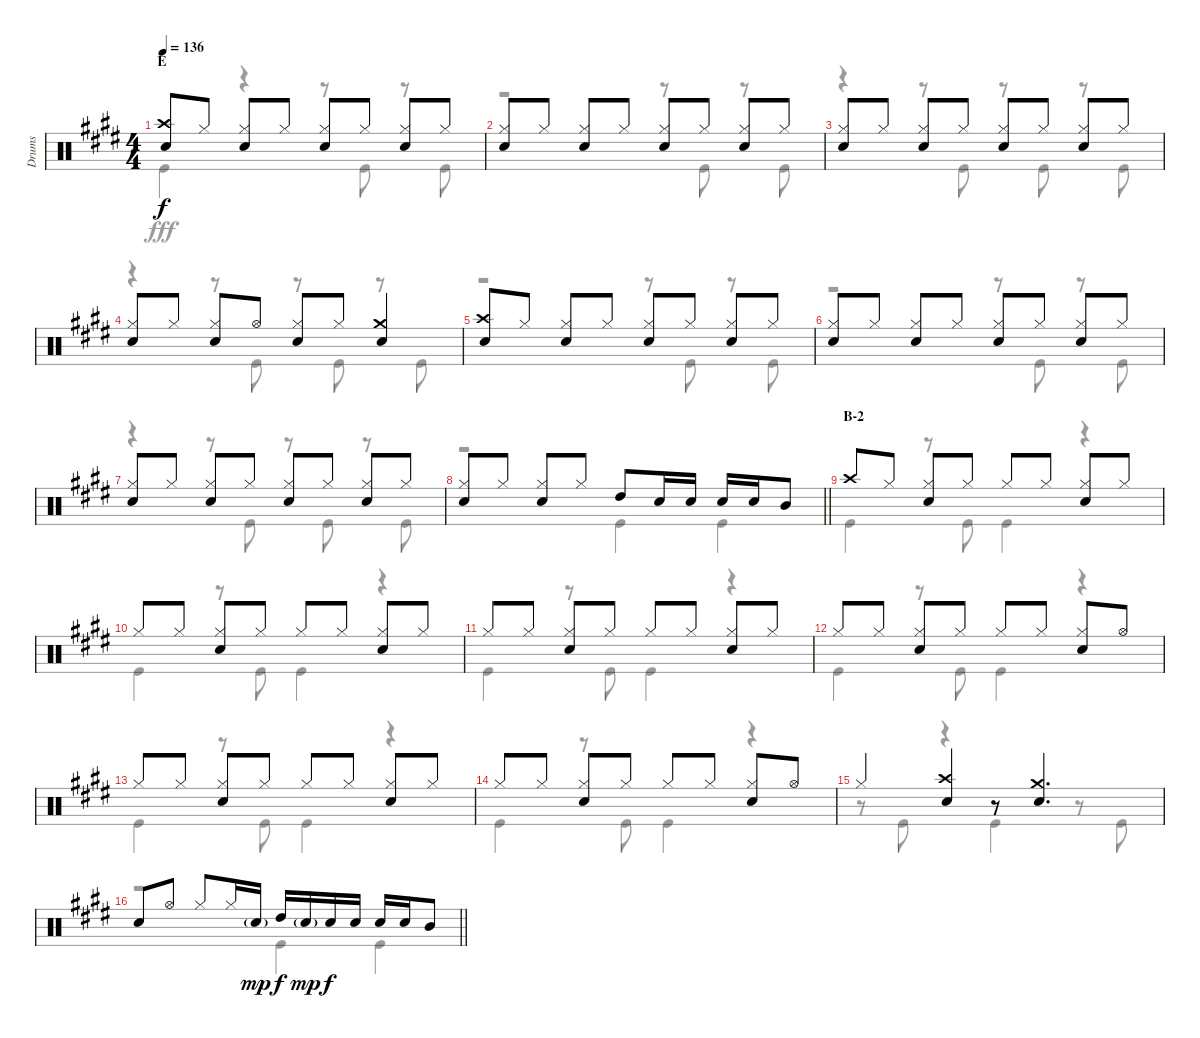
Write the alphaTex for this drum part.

\track ("Drums" "Drums") {instrument percussion}
\staff {score}
\articulation defaults
\voice
\ts (4 4)
\section ("" "E")
\tempo 136
\clef neutral
\ks e
("Crash high (hit)" "Snare (hit) 2").8{dy f} "Hi-Hat (closed)".8 ("Hi-Hat (closed)" "Snare (hit) 2").8 "Hi-Hat (closed)".8 ("Hi-Hat (closed)" "Snare (hit) 2").8 "Hi-Hat (closed)".8 ("Hi-Hat (closed)" "Snare (hit) 2").8 "Hi-Hat (closed)".8 |
("Hi-Hat (closed)" "Snare (hit) 2").8 "Hi-Hat (closed)".8 ("Hi-Hat (closed)" "Snare (hit) 2").8 "Hi-Hat (closed)".8 ("Hi-Hat (closed)" "Snare (hit) 2").8 "Hi-Hat (closed)".8 ("Hi-Hat (closed)" "Snare (hit) 2").8 "Hi-Hat (closed)".8 |
("Hi-Hat (closed)" "Snare (hit) 2").8 "Hi-Hat (closed)".8 ("Hi-Hat (closed)" "Snare (hit) 2").8 "Hi-Hat (closed)".8 ("Hi-Hat (closed)" "Snare (hit) 2").8 "Hi-Hat (closed)".8 ("Hi-Hat (closed)" "Snare (hit) 2").8 "Hi-Hat (closed)".8 |
("Hi-Hat (closed)" "Snare (hit) 2").8 "Hi-Hat (closed)".8 ("Hi-Hat (closed)" "Snare (hit) 2").8 "Hi-Hat (open)".8 ("Hi-Hat (closed)" "Snare (hit) 2").8 "Hi-Hat (closed)".8 ("Crash medium (hit)" "Snare (hit) 2").4 |
("Crash high (hit)" "Snare (hit) 2").8 "Hi-Hat (closed)".8 ("Hi-Hat (closed)" "Snare (hit) 2").8 "Hi-Hat (closed)".8 ("Hi-Hat (closed)" "Snare (hit) 2").8 "Hi-Hat (closed)".8 ("Hi-Hat (closed)" "Snare (hit) 2").8 "Hi-Hat (closed)".8 |
("Hi-Hat (closed)" "Snare (hit) 2").8 "Hi-Hat (closed)".8 ("Hi-Hat (closed)" "Snare (hit) 2").8 "Hi-Hat (closed)".8 ("Hi-Hat (closed)" "Snare (hit) 2").8 "Hi-Hat (closed)".8 ("Hi-Hat (closed)" "Snare (hit) 2").8 "Hi-Hat (closed)".8 |
("Hi-Hat (closed)" "Snare (hit) 2").8 "Hi-Hat (closed)".8 ("Hi-Hat (closed)" "Snare (hit) 2").8 "Hi-Hat (closed)".8 ("Hi-Hat (closed)" "Snare (hit) 2").8 "Hi-Hat (closed)".8 ("Hi-Hat (closed)" "Snare (hit) 2").8 "Hi-Hat (closed)".8 |
\barLineRight lightlight
("Hi-Hat (closed)" "Snare (hit) 2").8 "Hi-Hat (closed)".8 ("Hi-Hat (closed)" "Snare (hit) 2").8 "Hi-Hat (closed)".8 "High Tom (hit)".8 "Snare (hit) 2".16 "Snare (hit) 2".16 "Snare (hit) 2".16 "Snare (hit) 2".16 "Mid Tom (hit)".8 |
\section ("" "B-2")
"Crash high (hit)".8 "Hi-Hat (closed)".8 ("Hi-Hat (closed)" "Snare (hit) 2").8 "Hi-Hat (closed)".8 "Hi-Hat (closed)".8 "Hi-Hat (closed)".8 ("Hi-Hat (closed)" "Snare (hit) 2").8 "Hi-Hat (closed)".8 |
"Hi-Hat (closed)".8 "Hi-Hat (closed)".8 ("Hi-Hat (closed)" "Snare (hit) 2").8 "Hi-Hat (closed)".8 "Hi-Hat (closed)".8 "Hi-Hat (closed)".8 ("Hi-Hat (closed)" "Snare (hit) 2").8 "Hi-Hat (closed)".8 |
"Hi-Hat (closed)".8 "Hi-Hat (closed)".8 ("Hi-Hat (closed)" "Snare (hit) 2").8 "Hi-Hat (closed)".8 "Hi-Hat (closed)".8 "Hi-Hat (closed)".8 ("Hi-Hat (closed)" "Snare (hit) 2").8 "Hi-Hat (closed)".8 |
"Hi-Hat (closed)".8 "Hi-Hat (closed)".8 ("Hi-Hat (closed)" "Snare (hit) 2").8 "Hi-Hat (closed)".8 "Hi-Hat (closed)".8 "Hi-Hat (closed)".8 ("Hi-Hat (closed)" "Snare (hit) 2").8 "Hi-Hat (open)".8 |
"Hi-Hat (closed)".8 "Hi-Hat (closed)".8 ("Hi-Hat (closed)" "Snare (hit) 2").8 "Hi-Hat (closed)".8 "Hi-Hat (closed)".8 "Hi-Hat (closed)".8 ("Hi-Hat (closed)" "Snare (hit) 2").8 "Hi-Hat (closed)".8 |
"Hi-Hat (closed)".8 "Hi-Hat (closed)".8 ("Hi-Hat (closed)" "Snare (hit) 2").8 "Hi-Hat (closed)".8 "Hi-Hat (closed)".8 "Hi-Hat (closed)".8 ("Hi-Hat (closed)" "Snare (hit) 2").8 "Hi-Hat (open)".8 |
"Hi-Hat (closed)".4 ("Crash high (hit)" "Snare (hit) 2").4 r.8 ("Crash medium (hit)" "Snare (hit) 2").4{d} |
\barLineRight lightlight "Snare (hit) 2".8 "Hi-Hat (open)".8 "Hi-Hat (closed)".8 "Hi-Hat (closed)".16 "Snare (hit) 2"{g}.16{dy mp} "High Tom (hit)".16{dy f} "Snare (hit) 2"{g}.16{dy mp} "Snare (hit) 2".16{dy f} "Snare (hit) 2".16 "Snare (hit) 2".16 "Snare (hit) 2".16 "Mid Tom (hit)".8
\voice
\clef neutral
\ottava regular
\simile none
\ks e "Kick (hit)".4{dy fff}
r.4 r.8 "Kick (hit)".8 r.8 "Kick (hit)".8 |
r.2 r.8 "Kick (hit)".8 r.8 "Kick (hit)".8 |
r.4 r.8 "Kick (hit)".8 r.8 "Kick (hit)".8 r.8 "Kick (hit)".8 |
r.4 r.8 "Kick (hit)".8 r.8 "Kick (hit)".8 r.8 "Kick (hit)".8 |
r.2 r.8 "Kick (hit)".8 r.8 "Kick (hit)".8 |
r.2 r.8 "Kick (hit)".8 r.8 "Kick (hit)".8 |
r.4 r.8 "Kick (hit)".8 r.8 "Kick (hit)".8 r.8 "Kick (hit)".8 |
\barLineRight lightlight
r.2 "Kick (hit)".4 "Kick (hit)".4 |
"Kick (hit)".4 r.8 "Kick (hit)".8 "Kick (hit)".4 r.4 |
"Kick (hit)".4 r.8 "Kick (hit)".8 "Kick (hit)".4 r.4 |
"Kick (hit)".4 r.8 "Kick (hit)".8 "Kick (hit)".4 r.4 |
"Kick (hit)".4 r.8 "Kick (hit)".8 "Kick (hit)".4 r.4 |
"Kick (hit)".4 r.8 "Kick (hit)".8 "Kick (hit)".4 r.4 |
"Kick (hit)".4 r.8 "Kick (hit)".8 "Kick (hit)".4 r.4 |
r.8 "Kick (hit)".8 r.4 "Kick (hit)".4 r.8 "Kick (hit)".8 |
\barLineRight lightlight
r.2 "Kick (hit)".4 "Kick (hit)".4
